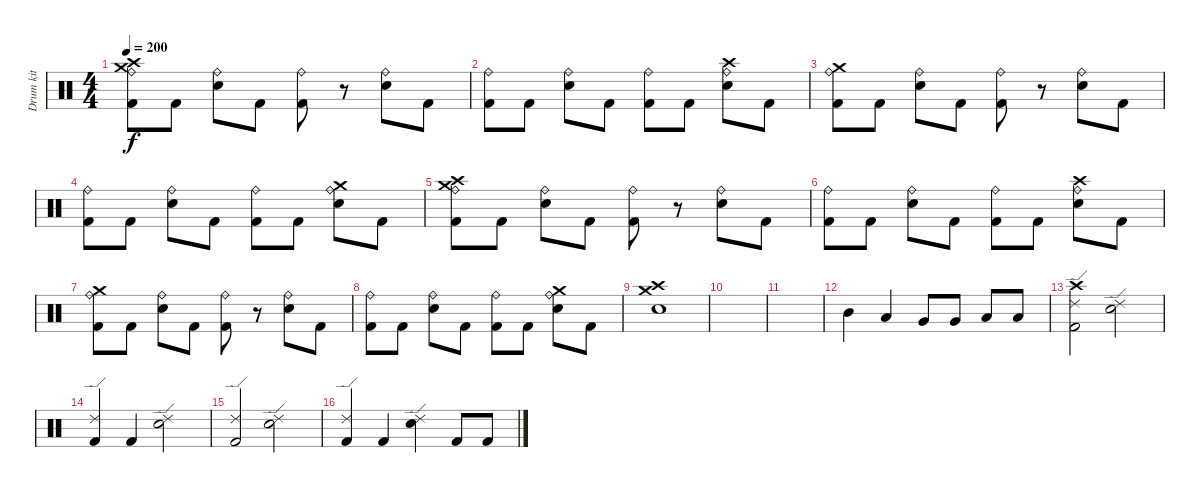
\track ("Drum kit" "Drum kit") {instrument percussion}
\staff {score}
\articulation defaults
\ts (4 4)
\tempo 200
\clef neutral
\ks c
("Crash medium (hit)" "Crash high (hit)" "Kick (hit) 2" "Ride (bell)").8{dy f} "Kick (hit) 2".8 ("Electric Snare (hit)" "Ride (bell)").8 "Kick (hit) 2".8 ("Kick (hit) 2" "Ride (bell)").8 r.8 ("Electric Snare (hit)" "Ride (bell)").8 "Kick (hit) 2".8 |
("Kick (hit) 2" "Ride (bell)").8 "Kick (hit) 2".8 ("Electric Snare (hit)" "Ride (bell)").8 "Kick (hit) 2".8 ("Kick (hit) 2" "Ride (bell)").8 "Kick (hit) 2".8 ("Crash high (hit)" "Electric Snare (hit)" "Ride (bell)").8 "Kick (hit) 2".8 |
("Crash medium (hit)" "Kick (hit) 2" "Ride (bell)").8 "Kick (hit) 2".8 ("Electric Snare (hit)" "Ride (bell)").8 "Kick (hit) 2".8 ("Kick (hit) 2" "Ride (bell)").8 r.8 ("Electric Snare (hit)" "Ride (bell)").8 "Kick (hit) 2".8 |
("Kick (hit) 2" "Ride (bell)").8 "Kick (hit) 2".8 ("Electric Snare (hit)" "Ride (bell)").8 "Kick (hit) 2".8 ("Kick (hit) 2" "Ride (bell)").8 "Kick (hit) 2".8 ("Crash medium (hit)" "Electric Snare (hit)" "Ride (bell)").8 "Kick (hit) 2".8 |
("Crash medium (hit)" "Crash high (hit)" "Kick (hit) 2" "Ride (bell)").8 "Kick (hit) 2".8 ("Electric Snare (hit)" "Ride (bell)").8 "Kick (hit) 2".8 ("Kick (hit) 2" "Ride (bell)").8 r.8 ("Electric Snare (hit)" "Ride (bell)").8 "Kick (hit) 2".8 |
("Kick (hit) 2" "Ride (bell)").8 "Kick (hit) 2".8 ("Electric Snare (hit)" "Ride (bell)").8 "Kick (hit) 2".8 ("Kick (hit) 2" "Ride (bell)").8 "Kick (hit) 2".8 ("Crash high (hit)" "Electric Snare (hit)" "Ride (bell)").8 "Kick (hit) 2".8 |
("Crash medium (hit)" "Kick (hit) 2" "Ride (bell)").8 "Kick (hit) 2".8 ("Electric Snare (hit)" "Ride (bell)").8 "Kick (hit) 2".8 ("Kick (hit) 2" "Ride (bell)").8 r.8 ("Electric Snare (hit)" "Ride (bell)").8 "Kick (hit) 2".8 |
("Kick (hit) 2" "Ride (bell)").8 "Kick (hit) 2".8 ("Electric Snare (hit)" "Ride (bell)").8 "Kick (hit) 2".8 ("Kick (hit) 2" "Ride (bell)").8 "Kick (hit) 2".8 ("Crash medium (hit)" "Electric Snare (hit)" "Ride (bell)").8 "Kick (hit) 2".8 |
("Crash medium (hit)" "Crash high (hit)" "Electric Snare (hit)").1 |
|
|
"Mid Tom (hit)".4 "Low Tom (hit)".4 "Very Low Tom (hit)".8 "Very Low Tom (hit)".8 "Low Floor Tom (hit)".8 "Low Floor Tom (hit)".8 |
("Crash high (hit)" "Kick (hit) 2" "Ride (edge) 2").2 ("Electric Snare (hit)" "Ride (edge) 2").2 |
("Kick (hit) 2" "Ride (edge) 2").4 "Kick (hit) 2".4 ("Electric Snare (hit)" "Ride (edge) 2").2 |
("Kick (hit) 2" "Ride (edge) 2").2 ("Electric Snare (hit)" "Ride (edge) 2").2 |
("Kick (hit) 2" "Ride (edge) 2").4 "Kick (hit) 2".4 ("Electric Snare (hit)" "Ride (edge) 2").4 "Kick (hit) 2".8 "Kick (hit) 2".8
